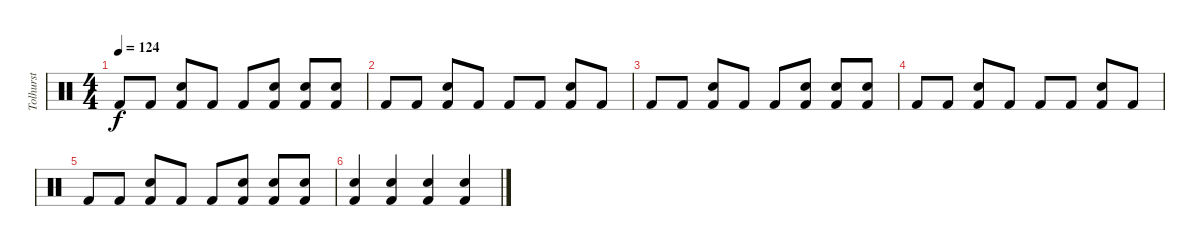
\track ("Tolhurst" "Tolhurst") {instrument percussion}
\staff {score}
\articulation defaults
\ts (4 4)
\tempo 124
\clef neutral
\ks c "Kick (hit) 2".8{dy f} "Kick (hit) 2".8
("Kick (hit) 2" "Snare (hit) 2").8 "Kick (hit) 2".8 "Kick (hit) 2".8 ("Kick (hit) 2" "Snare (hit) 2").8 ("Kick (hit) 2" "Snare (hit) 2").8 ("Kick (hit) 2" "Snare (hit) 2").8 |
"Kick (hit) 2".8 "Kick (hit) 2".8 ("Kick (hit) 2" "Snare (hit) 2").8 "Kick (hit) 2".8 "Kick (hit) 2".8 "Kick (hit) 2".8 ("Kick (hit) 2" "Snare (hit) 2").8 "Kick (hit) 2".8 |
"Kick (hit) 2".8 "Kick (hit) 2".8 ("Kick (hit) 2" "Snare (hit) 2").8 "Kick (hit) 2".8 "Kick (hit) 2".8 ("Kick (hit) 2" "Snare (hit) 2").8 ("Kick (hit) 2" "Snare (hit) 2").8 ("Kick (hit) 2" "Snare (hit) 2").8 |
"Kick (hit) 2".8 "Kick (hit) 2".8 ("Kick (hit) 2" "Snare (hit) 2").8 "Kick (hit) 2".8 "Kick (hit) 2".8 "Kick (hit) 2".8 ("Kick (hit) 2" "Snare (hit) 2").8 "Kick (hit) 2".8 |
"Kick (hit) 2".8 "Kick (hit) 2".8 ("Kick (hit) 2" "Snare (hit) 2").8 "Kick (hit) 2".8 "Kick (hit) 2".8 ("Kick (hit) 2" "Snare (hit) 2").8 ("Kick (hit) 2" "Snare (hit) 2").8 ("Kick (hit) 2" "Snare (hit) 2").8 |
("Kick (hit) 2" "Snare (hit) 2").4 ("Kick (hit) 2" "Snare (hit) 2").4{volume 11} ("Kick (hit) 2" "Snare (hit) 2").4{volume 8} ("Kick (hit) 2" "Snare (hit) 2").4{volume 5}
